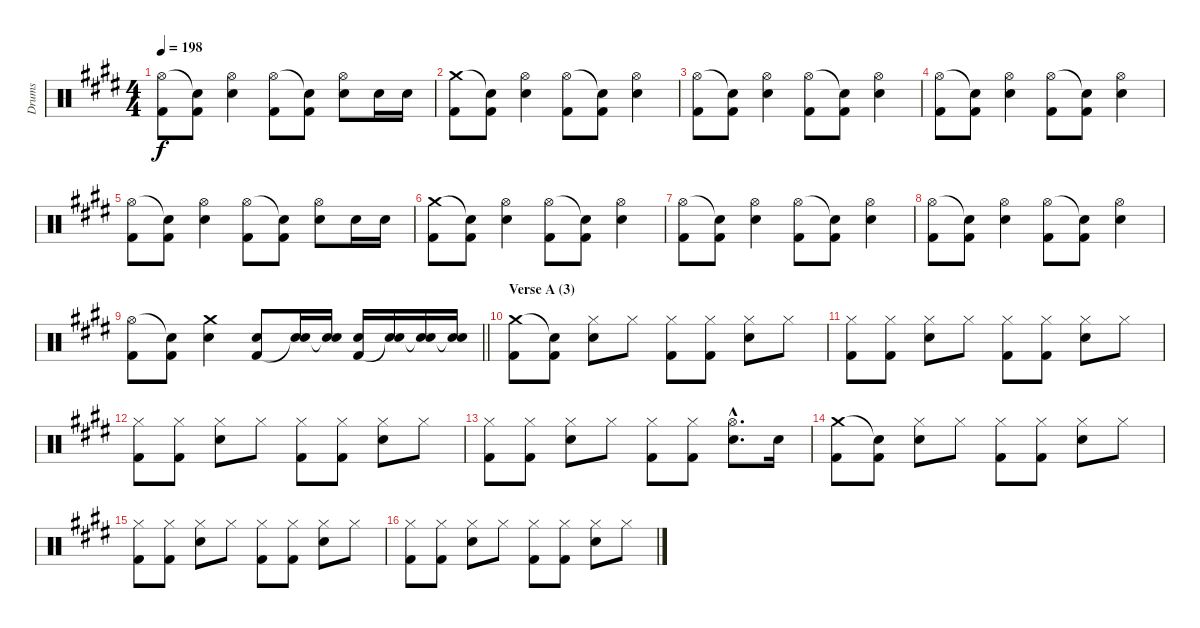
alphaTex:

\track ("Drums" "Drums") {instrument percussion}
\staff {score}
\articulation defaults
\ts (4 4)
\tempo 198
\clef neutral
\ks c#minor
("Hi-Hat (open)" "Kick (hit) 2").8{dy f} ("Snare (hit)"{t} "Kick (hit) 2").8 ("Hi-Hat (open)" "Electric Snare (hit)").4 ("Hi-Hat (open)" "Kick (hit) 2").8 ("Snare (hit)"{t} "Kick (hit) 2").8 ("Hi-Hat (open)" "Electric Snare (hit)").8 "Electric Snare (hit)".16 "Electric Snare (hit)".16 |
("Crash medium (hit)" "Kick (hit) 2").8 ("Snare (hit)"{t} "Kick (hit) 2").8 ("Hi-Hat (open)" "Electric Snare (hit)").4 ("Hi-Hat (open)" "Kick (hit) 2").8 ("Snare (hit)"{t} "Kick (hit) 2").8 ("Hi-Hat (open)" "Electric Snare (hit)").4 |
("Hi-Hat (open)" "Kick (hit) 2").8 ("Snare (hit)"{t} "Kick (hit) 2").8 ("Hi-Hat (open)" "Electric Snare (hit)").4 ("Hi-Hat (open)" "Kick (hit) 2").8 ("Snare (hit)"{t} "Kick (hit) 2").8 ("Hi-Hat (open)" "Electric Snare (hit)").4 |
("Hi-Hat (open)" "Kick (hit) 2").8 ("Snare (hit)"{t} "Kick (hit) 2").8 ("Hi-Hat (open)" "Electric Snare (hit)").4 ("Hi-Hat (open)" "Kick (hit) 2").8 ("Snare (hit)"{t} "Kick (hit) 2").8 ("Hi-Hat (open)" "Electric Snare (hit)").4 |
("Hi-Hat (open)" "Kick (hit) 2").8 ("Snare (hit)"{t} "Kick (hit) 2").8 ("Hi-Hat (open)" "Electric Snare (hit)").4 ("Hi-Hat (open)" "Kick (hit) 2").8 ("Snare (hit)"{t} "Kick (hit) 2").8 ("Hi-Hat (open)" "Electric Snare (hit)").8 "Electric Snare (hit)".16 "Electric Snare (hit)".16 |
("Crash medium (hit)" "Kick (hit) 2").8 ("Snare (hit)"{t} "Kick (hit) 2").8 ("Hi-Hat (open)" "Electric Snare (hit)").4 ("Hi-Hat (open)" "Kick (hit) 2").8 ("Snare (hit)"{t} "Kick (hit) 2").8 ("Hi-Hat (open)" "Electric Snare (hit)").4 |
("Hi-Hat (open)" "Kick (hit) 2").8 ("Snare (hit)"{t} "Kick (hit) 2").8 ("Hi-Hat (open)" "Electric Snare (hit)").4 ("Hi-Hat (open)" "Kick (hit) 2").8 ("Snare (hit)"{t} "Kick (hit) 2").8 ("Hi-Hat (open)" "Electric Snare (hit)").4 |
("Hi-Hat (open)" "Kick (hit) 2").8 ("Snare (hit)"{t} "Kick (hit) 2").8 ("Hi-Hat (open)" "Electric Snare (hit)").4 ("Hi-Hat (open)" "Kick (hit) 2").8 ("Snare (hit)"{t} "Kick (hit) 2").8 ("Hi-Hat (open)" "Electric Snare (hit)").4 |
\barLineRight lightlight
("Hi-Hat (open)" "Kick (hit) 2").8 ("Snare (hit)"{t} "Kick (hit) 2").8 ("Crash medium (hit)" "Electric Snare (hit)").4 ("Electric Snare (hit)" "Kick (hit) 2").8 ("Electric Snare (hit)" "Snare (hit)"{t}).16 ("Electric Snare (hit)" "Snare (hit)"{t}).16 ("Electric Snare (hit)" "Kick (hit) 2").16 ("Electric Snare (hit)" "Snare (hit)"{t}).16 ("Electric Snare (hit)" "Snare (hit)"{t}).16 ("Electric Snare (hit)" "Snare (hit)"{t}).16 |
\section ("" "Verse A (3)")
("Crash medium (hit)" "Kick (hit) 2").8 ("Snare (hit)"{t} "Kick (hit) 2").8 ("Hi-Hat (closed)" "Electric Snare (hit)").8 "Hi-Hat (closed)".8 ("Hi-Hat (closed)" "Kick (hit) 2").8 ("Hi-Hat (closed)" "Kick (hit) 2").8 ("Hi-Hat (closed)" "Electric Snare (hit)").8 "Hi-Hat (closed)".8 |
("Hi-Hat (closed)" "Kick (hit) 2").8 ("Hi-Hat (closed)" "Kick (hit) 2").8 ("Hi-Hat (closed)" "Electric Snare (hit)").8 "Hi-Hat (closed)".8 ("Hi-Hat (closed)" "Kick (hit) 2").8 ("Hi-Hat (closed)" "Kick (hit) 2").8 ("Hi-Hat (closed)" "Electric Snare (hit)").8 "Hi-Hat (closed)".8 |
("Hi-Hat (closed)" "Kick (hit) 2").8 ("Hi-Hat (closed)" "Kick (hit) 2").8 ("Hi-Hat (closed)" "Electric Snare (hit)").8 "Hi-Hat (closed)".8 ("Hi-Hat (closed)" "Kick (hit) 2").8 ("Hi-Hat (closed)" "Kick (hit) 2").8 ("Hi-Hat (closed)" "Electric Snare (hit)").8 "Hi-Hat (closed)".8 |
("Hi-Hat (closed)" "Kick (hit) 2").8 ("Hi-Hat (closed)" "Kick (hit) 2").8 ("Hi-Hat (closed)" "Electric Snare (hit)").8 "Hi-Hat (closed)".8 ("Hi-Hat (closed)" "Kick (hit) 2").8 ("Hi-Hat (closed)" "Kick (hit) 2").8 ("Hi-Hat (open)"{hac} "Electric Snare (hit)"{hac}).8{d} "Electric Snare (hit)".16 |
("Crash medium (hit)" "Kick (hit) 2").8 ("Snare (hit)"{t} "Kick (hit) 2").8 ("Hi-Hat (closed)" "Electric Snare (hit)").8 "Hi-Hat (closed)".8 ("Hi-Hat (closed)" "Kick (hit) 2").8 ("Hi-Hat (closed)" "Kick (hit) 2").8 ("Hi-Hat (closed)" "Electric Snare (hit)").8 "Hi-Hat (closed)".8 |
("Hi-Hat (closed)" "Kick (hit) 2").8 ("Hi-Hat (closed)" "Kick (hit) 2").8 ("Hi-Hat (closed)" "Electric Snare (hit)").8 "Hi-Hat (closed)".8 ("Hi-Hat (closed)" "Kick (hit) 2").8 ("Hi-Hat (closed)" "Kick (hit) 2").8 ("Hi-Hat (closed)" "Electric Snare (hit)").8 "Hi-Hat (closed)".8 |
("Hi-Hat (closed)" "Kick (hit) 2").8 ("Hi-Hat (closed)" "Kick (hit) 2").8 ("Hi-Hat (closed)" "Electric Snare (hit)").8 "Hi-Hat (closed)".8 ("Hi-Hat (closed)" "Kick (hit) 2").8 ("Hi-Hat (closed)" "Kick (hit) 2").8 ("Hi-Hat (closed)" "Electric Snare (hit)").8 "Hi-Hat (closed)".8
